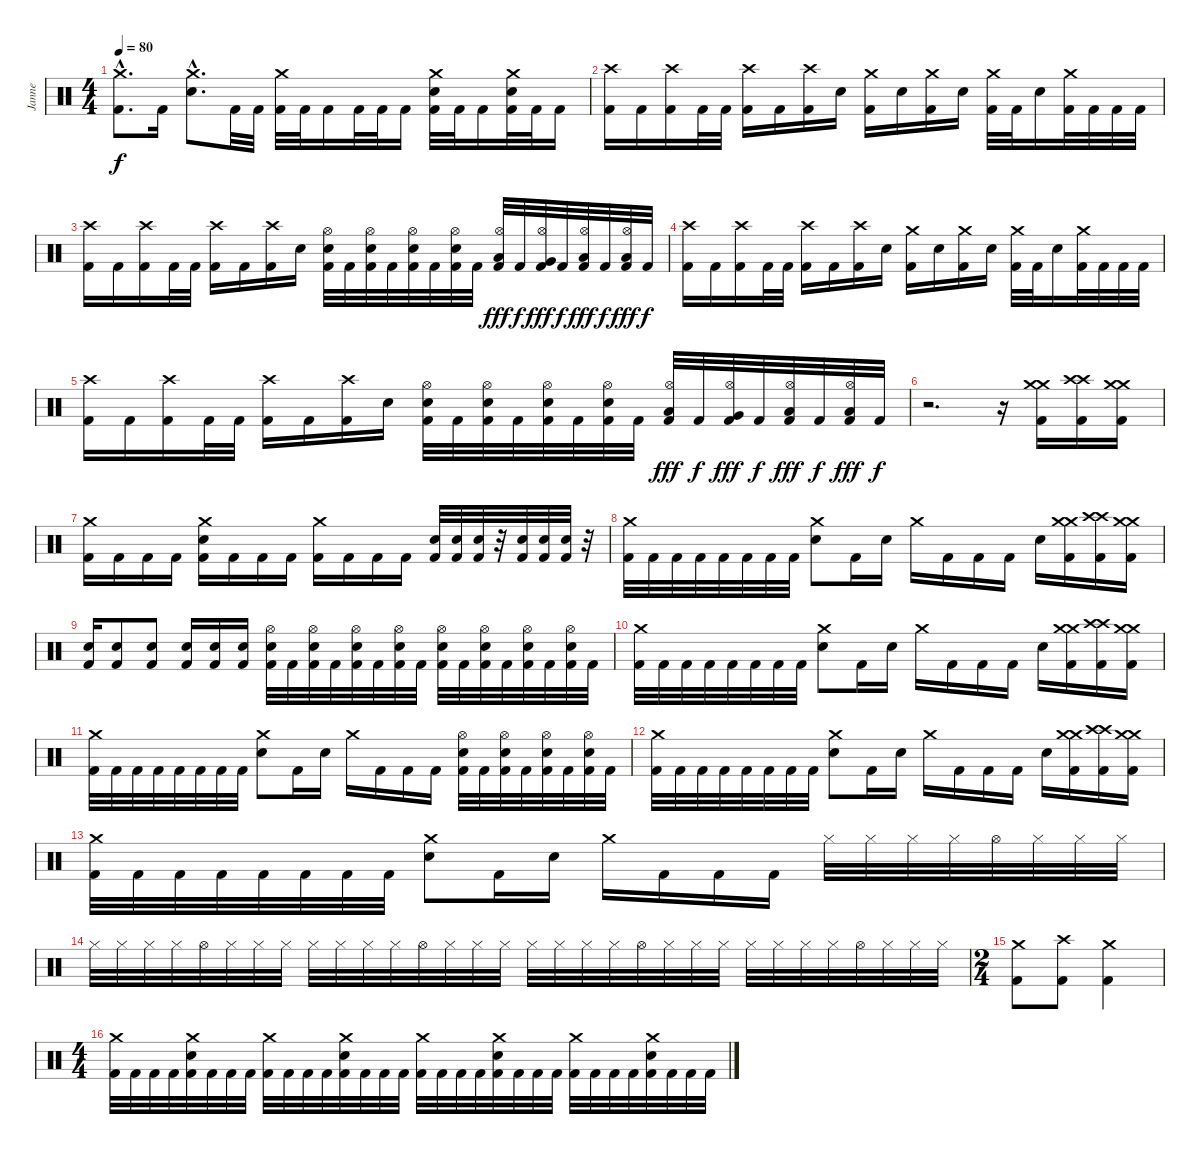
\track ("Janne" "Janne") {instrument percussion}
\staff {score}
\articulation defaults
\ts (4 4)
\tempo 80
\clef neutral
\ks c
("Crash medium (hit)"{hac} "Kick (hit) 2"{hac}).8{d dy f} "Kick (hit) 2".16 ("Crash medium (hit)"{hac} "Electric Snare (hit)"{hac}).8{d} "Kick (hit) 2".32 "Kick (hit) 2".32 ("Crash medium (hit)" "Kick (hit) 2").32 "Kick (hit) 2".32 "Kick (hit) 2".16 "Kick (hit) 2".32 "Kick (hit) 2".32 "Kick (hit) 2".16 ("Crash medium (hit)" "Electric Snare (hit)" "Kick (hit) 2").32 "Kick (hit) 2".32 "Kick (hit) 2".16 ("Crash medium (hit)" "Electric Snare (hit)" "Kick (hit) 2").32 "Kick (hit) 2".32 "Kick (hit) 2".16 |
("Crash high (hit)" "Kick (hit) 2").16 "Kick (hit) 2".16 ("Crash high (hit)" "Kick (hit) 2").16 "Kick (hit) 2".32 "Kick (hit) 2".32 ("Crash high (hit)" "Kick (hit) 2").16 "Kick (hit) 2".16 ("Crash high (hit)" "Kick (hit) 2").16 "Electric Snare (hit)".16 ("Crash medium (hit)" "Kick (hit) 2").16 "Electric Snare (hit)".16 ("Crash medium (hit)" "Kick (hit) 2").16 "Electric Snare (hit)".16 ("Crash medium (hit)" "Kick (hit) 2").32 "Kick (hit) 2".32 "Electric Snare (hit)".16 ("Crash medium (hit)" "Kick (hit) 2").32 "Kick (hit) 2".32 "Kick (hit) 2".32 "Kick (hit) 2".32 |
("Crash high (hit)" "Kick (hit) 2").16 "Kick (hit) 2".16 ("Crash high (hit)" "Kick (hit) 2").16 "Kick (hit) 2".32 "Kick (hit) 2".32 ("Crash high (hit)" "Kick (hit) 2").16 "Kick (hit) 2".16 ("Crash high (hit)" "Kick (hit) 2").16 "Electric Snare (hit)".16 ("Hi-Hat (open)" "Electric Snare (hit)" "Kick (hit) 2").32 "Kick (hit) 2".32 ("Hi-Hat (open)" "Electric Snare (hit)" "Kick (hit) 2").32 "Kick (hit) 2".32 ("Hi-Hat (open)" "Electric Snare (hit)" "Kick (hit) 2").32 "Kick (hit) 2".32 ("Hi-Hat (open)" "Electric Snare (hit)" "Kick (hit) 2").32 "Kick (hit) 2".32 ("Hi-Hat (open)" "Low Tom (hit)" "Kick (hit) 2").32{dy fff} "Kick (hit) 2".32{dy f} ("Hi-Hat (open)" "Very Low Tom (hit)" "Kick (hit) 2").32{dy fff} "Kick (hit) 2".32{dy f} ("Hi-Hat (open)" "Low Floor Tom (hit)" "Kick (hit) 2").32{dy fff} "Kick (hit) 2".32{dy f} ("Hi-Hat (open)" "Low Floor Tom (hit)" "Kick (hit) 2").32{dy fff} "Kick (hit) 2".32{dy f} |
("Crash high (hit)" "Kick (hit) 2").16 "Kick (hit) 2".16 ("Crash high (hit)" "Kick (hit) 2").16 "Kick (hit) 2".32 "Kick (hit) 2".32 ("Crash high (hit)" "Kick (hit) 2").16 "Kick (hit) 2".16 ("Crash high (hit)" "Kick (hit) 2").16 "Electric Snare (hit)".16 ("Crash medium (hit)" "Kick (hit) 2").16 "Electric Snare (hit)".16 ("Crash medium (hit)" "Kick (hit) 2").16 "Electric Snare (hit)".16 ("Crash medium (hit)" "Kick (hit) 2").32 "Kick (hit) 2".32 "Electric Snare (hit)".16 ("Crash medium (hit)" "Kick (hit) 2").32 "Kick (hit) 2".32 "Kick (hit) 2".32 "Kick (hit) 2".32 |
("Crash high (hit)" "Kick (hit) 2").16 "Kick (hit) 2".16 ("Crash high (hit)" "Kick (hit) 2").16 "Kick (hit) 2".32 "Kick (hit) 2".32 ("Crash high (hit)" "Kick (hit) 2").16 "Kick (hit) 2".16 ("Crash high (hit)" "Kick (hit) 2").16 "Electric Snare (hit)".16 ("Hi-Hat (open)" "Electric Snare (hit)" "Kick (hit) 2").32 "Kick (hit) 2".32 ("Hi-Hat (open)" "Electric Snare (hit)" "Kick (hit) 2").32 "Kick (hit) 2".32 ("Hi-Hat (open)" "Electric Snare (hit)" "Kick (hit) 2").32 "Kick (hit) 2".32 ("Hi-Hat (open)" "Electric Snare (hit)" "Kick (hit) 2").32 "Kick (hit) 2".32 ("Hi-Hat (open)" "Low Tom (hit)" "Kick (hit) 2").32{dy fff} "Kick (hit) 2".32{dy f} ("Hi-Hat (open)" "Very Low Tom (hit)" "Kick (hit) 2").32{dy fff} "Kick (hit) 2".32{dy f} ("Hi-Hat (open)" "Low Floor Tom (hit)" "Kick (hit) 2").32{dy fff} "Kick (hit) 2".32{dy f} ("Hi-Hat (open)" "Low Floor Tom (hit)" "Kick (hit) 2").32{dy fff} "Kick (hit) 2".32{dy f} |
r.2{d} r.16 ("Crash medium (hit)" "Crash medium (hit)" "Kick (hit) 2").16 ("Crash high (hit)" "Crash high (hit)" "Kick (hit) 2").16 ("Crash medium (hit)" "Crash medium (hit)" "Kick (hit) 2").16 |
("Crash medium (hit)" "Kick (hit) 2").16 "Kick (hit) 2".16 "Kick (hit) 2".16 "Kick (hit) 2".16 ("Crash medium (hit)" "Electric Snare (hit)" "Kick (hit) 2").16 "Kick (hit) 2".16 "Kick (hit) 2".16 "Kick (hit) 2".16 ("Crash medium (hit)" "Kick (hit) 2").16 "Kick (hit) 2".16 "Kick (hit) 2".16 "Kick (hit) 2".16 ("Electric Snare (hit)" "Kick (hit) 2").32 ("Electric Snare (hit)" "Kick (hit) 2").32 ("Electric Snare (hit)" "Kick (hit) 2").32 r.32 ("Electric Snare (hit)" "Kick (hit) 2").32 ("Electric Snare (hit)" "Kick (hit) 2").32 ("Electric Snare (hit)" "Kick (hit) 2").32 r.32 |
("Crash medium (hit)" "Kick (hit) 2").32 "Kick (hit) 2".32 "Kick (hit) 2".32 "Kick (hit) 2".32 "Kick (hit) 2".32 "Kick (hit) 2".32 "Kick (hit) 2".32 "Kick (hit) 2".32 ("Crash medium (hit)" "Electric Snare (hit)").8 "Kick (hit) 2".16 "Electric Snare (hit)".16 "Crash medium (hit)".16 "Kick (hit) 2".16 "Kick (hit) 2".16 "Kick (hit) 2".16 "Electric Snare (hit)".16 ("Crash medium (hit)" "Crash medium (hit)" "Kick (hit) 2").16 ("Crash high (hit)" "Crash high (hit)" "Kick (hit) 2").16 ("Crash medium (hit)" "Crash medium (hit)" "Kick (hit) 2").16 |
("Electric Snare (hit)" "Kick (hit) 2").16 ("Electric Snare (hit)" "Kick (hit) 2").8 ("Electric Snare (hit)" "Kick (hit) 2").8 ("Electric Snare (hit)" "Kick (hit) 2").16 ("Electric Snare (hit)" "Kick (hit) 2").16 ("Electric Snare (hit)" "Kick (hit) 2").16 ("Hi-Hat (open)" "Electric Snare (hit)" "Kick (hit) 2").32 "Kick (hit) 2".32 ("Hi-Hat (open)" "Electric Snare (hit)" "Kick (hit) 2").32 "Kick (hit) 2".32 ("Hi-Hat (open)" "Electric Snare (hit)" "Kick (hit) 2").32 "Kick (hit) 2".32 ("Hi-Hat (open)" "Electric Snare (hit)" "Kick (hit) 2").32 "Kick (hit) 2".32 ("Hi-Hat (open)" "Electric Snare (hit)" "Kick (hit) 2").32 "Kick (hit) 2".32 ("Hi-Hat (open)" "Electric Snare (hit)" "Kick (hit) 2").32 "Kick (hit) 2".32 ("Hi-Hat (open)" "Electric Snare (hit)" "Kick (hit) 2").32 "Kick (hit) 2".32 ("Hi-Hat (open)" "Electric Snare (hit)" "Kick (hit) 2").32 "Kick (hit) 2".32 |
("Crash medium (hit)" "Kick (hit) 2").32 "Kick (hit) 2".32 "Kick (hit) 2".32 "Kick (hit) 2".32 "Kick (hit) 2".32 "Kick (hit) 2".32 "Kick (hit) 2".32 "Kick (hit) 2".32 ("Crash medium (hit)" "Electric Snare (hit)").8 "Kick (hit) 2".16 "Electric Snare (hit)".16 "Crash medium (hit)".16 "Kick (hit) 2".16 "Kick (hit) 2".16 "Kick (hit) 2".16 "Electric Snare (hit)".16 ("Crash medium (hit)" "Crash medium (hit)" "Kick (hit) 2").16 ("Crash high (hit)" "Crash high (hit)" "Kick (hit) 2").16 ("Crash medium (hit)" "Crash medium (hit)" "Kick (hit) 2").16 |
("Crash medium (hit)" "Kick (hit) 2").32 "Kick (hit) 2".32 "Kick (hit) 2".32 "Kick (hit) 2".32 "Kick (hit) 2".32 "Kick (hit) 2".32 "Kick (hit) 2".32 "Kick (hit) 2".32 ("Crash medium (hit)" "Electric Snare (hit)").8 "Kick (hit) 2".16 "Electric Snare (hit)".16 "Crash medium (hit)".16 "Kick (hit) 2".16 "Kick (hit) 2".16 "Kick (hit) 2".16 ("Hi-Hat (open)" "Electric Snare (hit)" "Kick (hit) 2").32 "Kick (hit) 2".32 ("Hi-Hat (open)" "Electric Snare (hit)" "Kick (hit) 2").32 "Kick (hit) 2".32 ("Hi-Hat (open)" "Electric Snare (hit)" "Kick (hit) 2").32 "Kick (hit) 2".32 ("Hi-Hat (open)" "Electric Snare (hit)" "Kick (hit) 2").32 "Kick (hit) 2".32 |
("Crash medium (hit)" "Kick (hit) 2").32 "Kick (hit) 2".32 "Kick (hit) 2".32 "Kick (hit) 2".32 "Kick (hit) 2".32 "Kick (hit) 2".32 "Kick (hit) 2".32 "Kick (hit) 2".32 ("Crash medium (hit)" "Electric Snare (hit)").8 "Kick (hit) 2".16 "Electric Snare (hit)".16 "Crash medium (hit)".16 "Kick (hit) 2".16 "Kick (hit) 2".16 "Kick (hit) 2".16 "Electric Snare (hit)".16 ("Crash medium (hit)" "Crash medium (hit)" "Kick (hit) 2").16 ("Crash high (hit)" "Crash high (hit)" "Kick (hit) 2").16 ("Crash medium (hit)" "Crash medium (hit)" "Kick (hit) 2").16 |
("Crash medium (hit)" "Kick (hit) 2").32 "Kick (hit) 2".32 "Kick (hit) 2".32 "Kick (hit) 2".32 "Kick (hit) 2".32 "Kick (hit) 2".32 "Kick (hit) 2".32 "Kick (hit) 2".32 ("Crash medium (hit)" "Electric Snare (hit)").8 "Kick (hit) 2".16 "Electric Snare (hit)".16 "Crash medium (hit)".16 "Kick (hit) 2".16 "Kick (hit) 2".16 "Kick (hit) 2".16 "Hi-Hat (closed)".32 "Hi-Hat (closed)".32 "Hi-Hat (closed)".32 "Hi-Hat (closed)".32 "Hi-Hat (open)".32 "Hi-Hat (closed)".32 "Hi-Hat (closed)".32 "Hi-Hat (closed)".32 |
"Hi-Hat (closed)".32 "Hi-Hat (closed)".32 "Hi-Hat (closed)".32 "Hi-Hat (closed)".32 "Hi-Hat (open)".32 "Hi-Hat (closed)".32 "Hi-Hat (closed)".32 "Hi-Hat (closed)".32 "Hi-Hat (closed)".32 "Hi-Hat (closed)".32 "Hi-Hat (closed)".32 "Hi-Hat (closed)".32 "Hi-Hat (open)".32 "Hi-Hat (closed)".32 "Hi-Hat (closed)".32 "Hi-Hat (closed)".32 "Hi-Hat (closed)".32 "Hi-Hat (closed)".32 "Hi-Hat (closed)".32 "Hi-Hat (closed)".32 "Hi-Hat (open)".32 "Hi-Hat (closed)".32 "Hi-Hat (closed)".32 "Hi-Hat (closed)".32 "Hi-Hat (closed)".32 "Hi-Hat (closed)".32 "Hi-Hat (closed)".32 "Hi-Hat (closed)".32 "Hi-Hat (open)".32 "Hi-Hat (closed)".32 "Hi-Hat (closed)".32 "Hi-Hat (closed)".32 |
\ts (2 4)
("Crash medium (hit)" "Kick (hit) 2").8 ("Crash high (hit)" "Kick (hit) 2").8 ("Crash medium (hit)" "Kick (hit) 2").4 |
\ts (4 4)
("Crash medium (hit)" "Kick (hit) 2").32 "Kick (hit) 2".32 "Kick (hit) 2".32 "Kick (hit) 2".32 ("Crash medium (hit)" "Electric Snare (hit)" "Kick (hit) 2").32 "Kick (hit) 2".32 "Kick (hit) 2".32 "Kick (hit) 2".32 ("Crash medium (hit)" "Kick (hit) 2").32 "Kick (hit) 2".32 "Kick (hit) 2".32 "Kick (hit) 2".32 ("Crash medium (hit)" "Electric Snare (hit)" "Kick (hit) 2").32 "Kick (hit) 2".32 "Kick (hit) 2".32 "Kick (hit) 2".32 ("Crash medium (hit)" "Kick (hit) 2").32 "Kick (hit) 2".32 "Kick (hit) 2".32 "Kick (hit) 2".32 ("Crash medium (hit)" "Electric Snare (hit)" "Kick (hit) 2").32 "Kick (hit) 2".32 "Kick (hit) 2".32 "Kick (hit) 2".32 ("Crash medium (hit)" "Kick (hit) 2").32 "Kick (hit) 2".32 "Kick (hit) 2".32 "Kick (hit) 2".32 ("Crash medium (hit)" "Electric Snare (hit)" "Kick (hit) 2").32 "Kick (hit) 2".32 "Kick (hit) 2".32 "Kick (hit) 2".32
